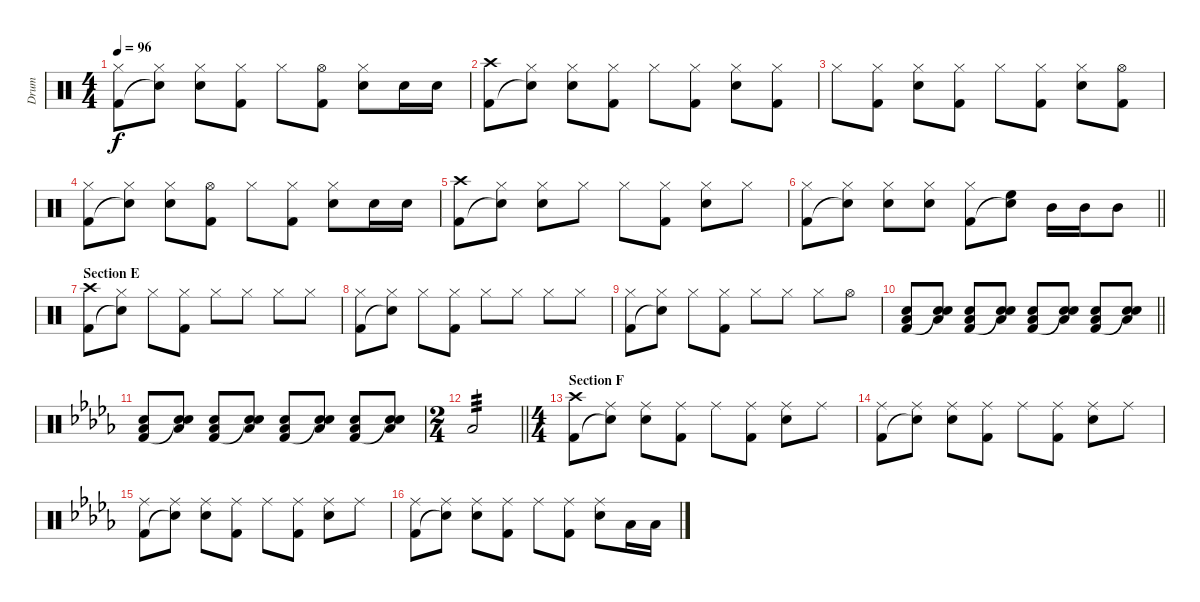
\track ("Drum" "Drum") {instrument percussion}
\staff {score}
\articulation defaults
\ts (4 4)
\tempo 96
\clef neutral
\ks c
("Hi-Hat (closed)" "Kick (hit) 2").8{dy f} ("Hi-Hat (closed)" "Snare (hit)"{t}).8 ("Hi-Hat (closed)" "Snare (hit) 2").8 ("Hi-Hat (closed)" "Kick (hit) 2").8 "Hi-Hat (closed)".8 ("Hi-Hat (open)" "Kick (hit) 2").8 ("Hi-Hat (closed)" "Snare (hit) 2").8 "Snare (hit) 2".16 "Snare (hit) 2".16 |
("Crash high (hit)" "Kick (hit) 2").8 ("Hi-Hat (closed)" "Snare (hit)"{t}).8 ("Hi-Hat (closed)" "Snare (hit) 2").8 ("Hi-Hat (closed)" "Kick (hit) 2").8 "Hi-Hat (closed)".8 ("Hi-Hat (closed)" "Kick (hit) 2").8 ("Hi-Hat (closed)" "Snare (hit) 2").8 ("Hi-Hat (closed)" "Kick (hit) 2").8 |
"Hi-Hat (closed)".8 ("Hi-Hat (closed)" "Kick (hit) 2").8 ("Hi-Hat (closed)" "Snare (hit) 2").8 ("Hi-Hat (closed)" "Kick (hit) 2").8 "Hi-Hat (closed)".8 ("Hi-Hat (closed)" "Kick (hit) 2").8 ("Hi-Hat (closed)" "Snare (hit) 2").8 ("Hi-Hat (open)" "Kick (hit) 2").8 |
("Hi-Hat (closed)" "Kick (hit) 2").8 ("Hi-Hat (closed)" "Snare (hit)"{t}).8 ("Hi-Hat (closed)" "Snare (hit) 2").8 ("Hi-Hat (open)" "Kick (hit) 2").8 "Hi-Hat (closed)".8 ("Hi-Hat (closed)" "Kick (hit) 2").8 ("Hi-Hat (closed)" "Snare (hit) 2").8 "Snare (hit) 2".16 "Snare (hit) 2".16 |
("Crash high (hit)" "Kick (hit) 2").8 ("Hi-Hat (closed)" "Snare (hit)"{t}).8 ("Hi-Hat (closed)" "Snare (hit) 2").8 "Hi-Hat (closed)".8 "Hi-Hat (closed)".8 ("Hi-Hat (closed)" "Kick (hit) 2").8 ("Hi-Hat (closed)" "Snare (hit) 2").8 "Hi-Hat (closed)".8 |
\barLineRight lightlight
("Hi-Hat (closed)" "Kick (hit) 2").8 ("Hi-Hat (closed)" "Snare (hit)"{t}).8 ("Hi-Hat (closed)" "Snare (hit) 2").8 ("Hi-Hat (closed)" "Snare (hit) 2").8 ("Hi-Hat (closed)" "Kick (hit) 2").8 ("High Floor Tom (hit)" "Snare (hit)"{t}).8 "Mid Tom (hit)".16 "Mid Tom (hit)".16 "Mid Tom (hit)".8 |
\section ("" "Section E")
("Crash high (hit)" "Kick (hit) 2").8 ("Hi-Hat (closed)" "Snare (hit)"{t}).8 "Hi-Hat (closed)".8 ("Hi-Hat (closed)" "Kick (hit) 2").8 "Hi-Hat (closed)".8 "Hi-Hat (closed)".8 "Hi-Hat (closed)".8 "Hi-Hat (closed)".8 |
("Hi-Hat (closed)" "Kick (hit) 2").8 ("Hi-Hat (closed)" "Snare (hit)"{t}).8 "Hi-Hat (closed)".8 ("Hi-Hat (closed)" "Kick (hit) 2").8 "Hi-Hat (closed)".8 "Hi-Hat (closed)".8 "Hi-Hat (closed)".8 "Hi-Hat (closed)".8 |
("Hi-Hat (closed)" "Kick (hit) 2").8 ("Hi-Hat (closed)" "Snare (hit)"{t}).8 "Hi-Hat (closed)".8 ("Hi-Hat (closed)" "Kick (hit) 2").8 "Hi-Hat (closed)".8 "Hi-Hat (closed)".8 "Hi-Hat (closed)".8 "Hi-Hat (open)".8 |
\barLineRight lightlight
("Snare (hit) 2" "Low Tom (hit)" "Kick (hit) 2").8 ("Snare (hit) 2" "Low Tom (hit)" "Snare (hit)"{t}).8 ("Snare (hit) 2" "Low Tom (hit)" "Kick (hit) 2").8 ("Snare (hit) 2" "Low Tom (hit)" "Snare (hit)"{t}).8 ("Snare (hit) 2" "Low Tom (hit)" "Kick (hit) 2").8 ("Snare (hit) 2" "Low Tom (hit)" "Snare (hit)"{t}).8 ("Snare (hit) 2" "Low Tom (hit)" "Kick (hit) 2").8 ("Snare (hit) 2" "Low Tom (hit)" "Snare (hit)"{t}).8 |
\ks db
("Snare (hit) 2" "Low Tom (hit)" "Kick (hit) 2").8 ("Snare (hit) 2" "Low Tom (hit)" "Snare (hit)"{t}).8 ("Snare (hit) 2" "Low Tom (hit)" "Kick (hit) 2").8 ("Snare (hit) 2" "Low Tom (hit)" "Snare (hit)"{t}).8 ("Snare (hit) 2" "Low Tom (hit)" "Kick (hit) 2").8 ("Snare (hit) 2" "Low Tom (hit)" "Snare (hit)"{t}).8 ("Snare (hit) 2" "Low Tom (hit)" "Kick (hit) 2").8 ("Snare (hit) 2" "Low Tom (hit)" "Snare (hit)"{t}).8 |
\ts (2 4)
\barLineRight lightlight "Low Tom (hit)".2{tp 3}
|
\ts (4 4)
\section ("" "Section F")
("Crash high (hit)" "Kick (hit) 2").8 ("Ride (middle)" "Snare (hit)"{t}).8 ("Ride (middle)" "Snare (hit) 2").8 ("Ride (middle)" "Kick (hit) 2").8 "Ride (middle)".8 ("Ride (middle)" "Kick (hit) 2").8 ("Ride (middle)" "Snare (hit) 2").8 "Ride (middle)".8 |
("Ride (middle)" "Kick (hit) 2").8 ("Ride (middle)" "Snare (hit)"{t}).8 ("Ride (middle)" "Snare (hit) 2").8 ("Ride (middle)" "Kick (hit) 2").8 "Ride (middle)".8 ("Ride (middle)" "Kick (hit) 2").8 ("Ride (middle)" "Snare (hit) 2").8 "Ride (middle)".8 |
("Ride (middle)" "Kick (hit) 2").8 ("Ride (middle)" "Snare (hit)"{t}).8 ("Ride (middle)" "Snare (hit) 2").8 ("Ride (middle)" "Kick (hit) 2").8 "Ride (middle)".8 ("Ride (middle)" "Kick (hit) 2").8 ("Ride (middle)" "Snare (hit) 2").8 "Ride (middle)".8 |
("Ride (middle)" "Kick (hit) 2").8 ("Ride (middle)" "Snare (hit)"{t}).8 ("Ride (middle)" "Snare (hit) 2").8 ("Ride (middle)" "Kick (hit) 2").8 "Ride (middle)".8 ("Ride (middle)" "Kick (hit) 2").8 ("Ride (middle)" "Snare (hit) 2").8 "Low Tom (hit)".16 "Low Tom (hit)".16
